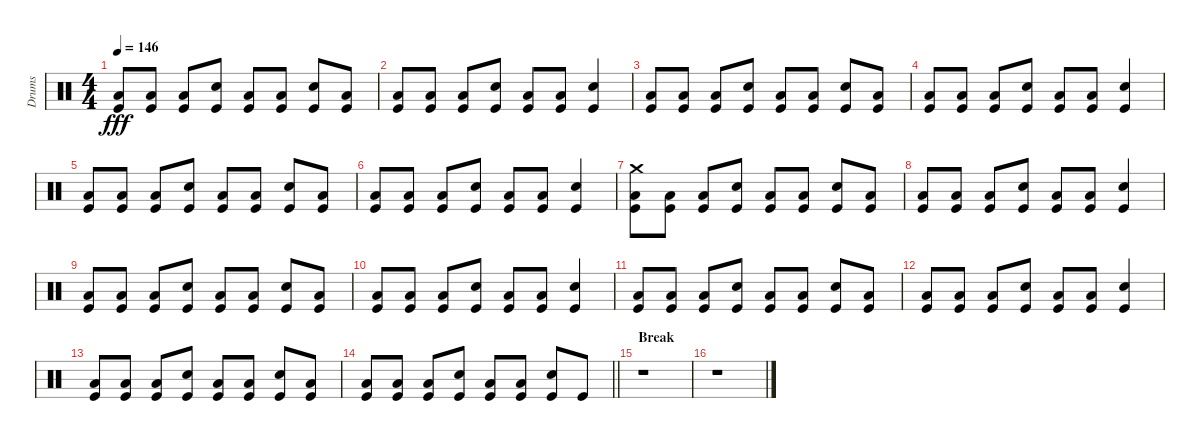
\track ("Drums" "Drums") {instrument percussion}
\staff {score}
\articulation defaults
\ts (4 4)
\tempo 146
\clef neutral
\ks c
("Low Floor Tom (hit)" "Kick (hit)").8{dy fff} ("Low Floor Tom (hit)" "Kick (hit)").8 ("Low Floor Tom (hit)" "Kick (hit)").8 ("Electric Snare (hit)" "Kick (hit)").8 ("Low Floor Tom (hit)" "Kick (hit)").8 ("Low Floor Tom (hit)" "Kick (hit)").8 ("Electric Snare (hit)" "Kick (hit)").8 ("Low Floor Tom (hit)" "Kick (hit)").8 |
("Low Floor Tom (hit)" "Kick (hit)").8 ("Low Floor Tom (hit)" "Kick (hit)").8 ("Low Floor Tom (hit)" "Kick (hit)").8 ("Electric Snare (hit)" "Kick (hit)").8 ("Low Floor Tom (hit)" "Kick (hit)").8 ("Low Floor Tom (hit)" "Kick (hit)").8 ("Electric Snare (hit)" "Kick (hit)").4 |
("Low Floor Tom (hit)" "Kick (hit)").8 ("Low Floor Tom (hit)" "Kick (hit)").8 ("Low Floor Tom (hit)" "Kick (hit)").8 ("Electric Snare (hit)" "Kick (hit)").8 ("Low Floor Tom (hit)" "Kick (hit)").8 ("Low Floor Tom (hit)" "Kick (hit)").8 ("Electric Snare (hit)" "Kick (hit)").8 ("Low Floor Tom (hit)" "Kick (hit)").8 |
("Low Floor Tom (hit)" "Kick (hit)").8 ("Low Floor Tom (hit)" "Kick (hit)").8 ("Low Floor Tom (hit)" "Kick (hit)").8 ("Electric Snare (hit)" "Kick (hit)").8 ("Low Floor Tom (hit)" "Kick (hit)").8 ("Low Floor Tom (hit)" "Kick (hit)").8 ("Electric Snare (hit)" "Kick (hit)").4 |
("Low Floor Tom (hit)" "Kick (hit)").8 ("Low Floor Tom (hit)" "Kick (hit)").8 ("Low Floor Tom (hit)" "Kick (hit)").8 ("Electric Snare (hit)" "Kick (hit)").8 ("Low Floor Tom (hit)" "Kick (hit)").8 ("Low Floor Tom (hit)" "Kick (hit)").8 ("Electric Snare (hit)" "Kick (hit)").8 ("Low Floor Tom (hit)" "Kick (hit)").8 |
("Low Floor Tom (hit)" "Kick (hit)").8 ("Low Floor Tom (hit)" "Kick (hit)").8 ("Low Floor Tom (hit)" "Kick (hit)").8 ("Electric Snare (hit)" "Kick (hit)").8 ("Low Floor Tom (hit)" "Kick (hit)").8 ("Low Floor Tom (hit)" "Kick (hit)").8 ("Electric Snare (hit)" "Kick (hit)").4 |
("Crash medium (hit)" "Low Floor Tom (hit)" "Kick (hit)").8 ("Low Floor Tom (hit)" "Kick (hit)").8 ("Low Floor Tom (hit)" "Kick (hit)").8 ("Electric Snare (hit)" "Kick (hit)").8 ("Low Floor Tom (hit)" "Kick (hit)").8 ("Low Floor Tom (hit)" "Kick (hit)").8 ("Electric Snare (hit)" "Kick (hit)").8 ("Low Floor Tom (hit)" "Kick (hit)").8 |
("Low Floor Tom (hit)" "Kick (hit)").8 ("Low Floor Tom (hit)" "Kick (hit)").8 ("Low Floor Tom (hit)" "Kick (hit)").8 ("Electric Snare (hit)" "Kick (hit)").8 ("Low Floor Tom (hit)" "Kick (hit)").8 ("Low Floor Tom (hit)" "Kick (hit)").8 ("Electric Snare (hit)" "Kick (hit)").4 |
("Low Floor Tom (hit)" "Kick (hit)").8 ("Low Floor Tom (hit)" "Kick (hit)").8 ("Low Floor Tom (hit)" "Kick (hit)").8 ("Electric Snare (hit)" "Kick (hit)").8 ("Low Floor Tom (hit)" "Kick (hit)").8 ("Low Floor Tom (hit)" "Kick (hit)").8 ("Electric Snare (hit)" "Kick (hit)").8 ("Low Floor Tom (hit)" "Kick (hit)").8 |
("Low Floor Tom (hit)" "Kick (hit)").8 ("Low Floor Tom (hit)" "Kick (hit)").8 ("Low Floor Tom (hit)" "Kick (hit)").8 ("Electric Snare (hit)" "Kick (hit)").8 ("Low Floor Tom (hit)" "Kick (hit)").8 ("Low Floor Tom (hit)" "Kick (hit)").8 ("Electric Snare (hit)" "Kick (hit)").4 |
("Low Floor Tom (hit)" "Kick (hit)").8 ("Low Floor Tom (hit)" "Kick (hit)").8 ("Low Floor Tom (hit)" "Kick (hit)").8 ("Electric Snare (hit)" "Kick (hit)").8 ("Low Floor Tom (hit)" "Kick (hit)").8 ("Low Floor Tom (hit)" "Kick (hit)").8 ("Electric Snare (hit)" "Kick (hit)").8 ("Low Floor Tom (hit)" "Kick (hit)").8 |
("Low Floor Tom (hit)" "Kick (hit)").8 ("Low Floor Tom (hit)" "Kick (hit)").8 ("Low Floor Tom (hit)" "Kick (hit)").8 ("Electric Snare (hit)" "Kick (hit)").8 ("Low Floor Tom (hit)" "Kick (hit)").8 ("Low Floor Tom (hit)" "Kick (hit)").8 ("Electric Snare (hit)" "Kick (hit)").4 |
("Low Floor Tom (hit)" "Kick (hit)").8 ("Low Floor Tom (hit)" "Kick (hit)").8 ("Low Floor Tom (hit)" "Kick (hit)").8 ("Electric Snare (hit)" "Kick (hit)").8 ("Low Floor Tom (hit)" "Kick (hit)").8 ("Low Floor Tom (hit)" "Kick (hit)").8 ("Electric Snare (hit)" "Kick (hit)").8 ("Low Floor Tom (hit)" "Kick (hit)").8 |
\barLineRight lightlight
("Low Floor Tom (hit)" "Kick (hit)").8 ("Low Floor Tom (hit)" "Kick (hit)").8 ("Low Floor Tom (hit)" "Kick (hit)").8 ("Electric Snare (hit)" "Kick (hit)").8 ("Low Floor Tom (hit)" "Kick (hit)").8 ("Low Floor Tom (hit)" "Kick (hit)").8 ("Electric Snare (hit)" "Kick (hit)").8 "Kick (hit)".8 |
\section ("" "Break")
r.1 |
r.1
